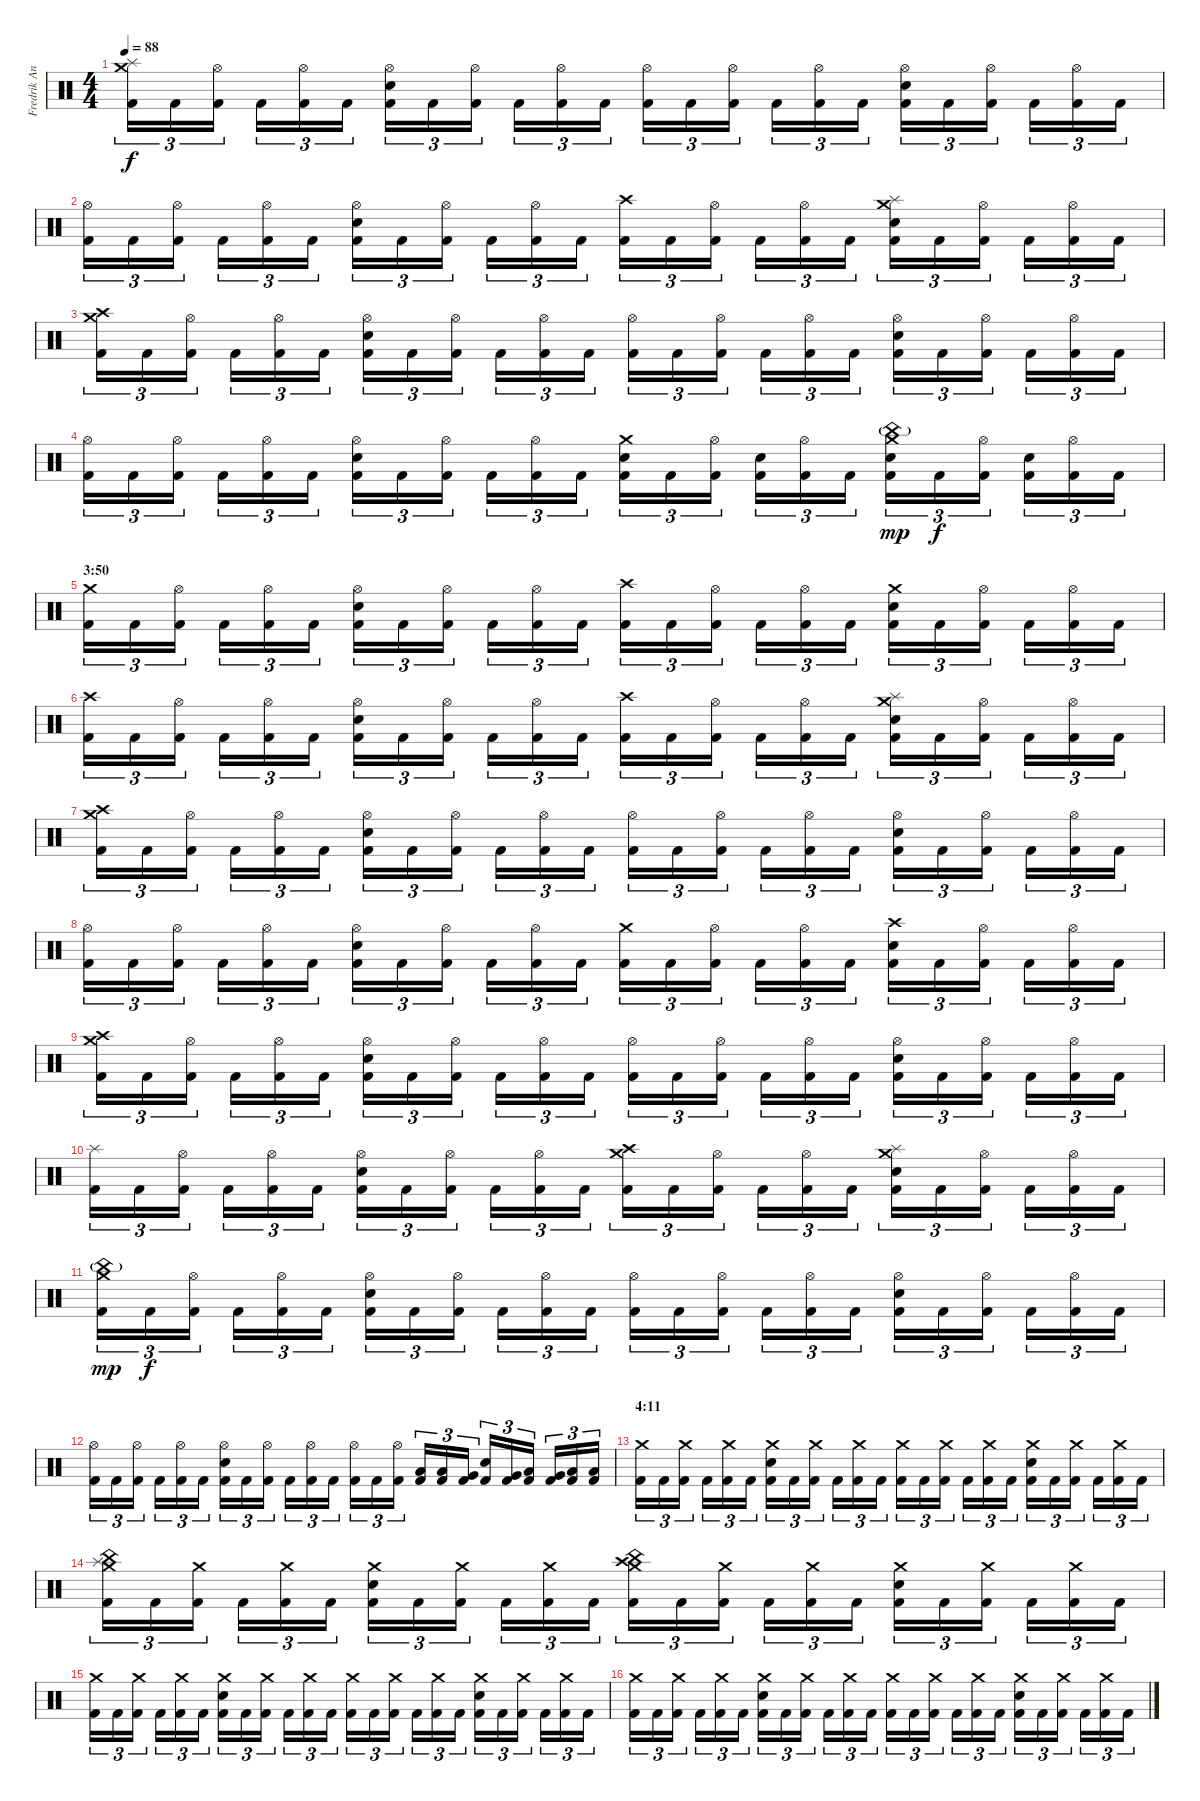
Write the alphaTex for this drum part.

\track ("Fredrik Andersson" "Fredrik An") {instrument percussion}
\staff {score}
\articulation defaults
\ts (4 4)
\tempo 88
\clef neutral
\ks c
("Crash medium (hit)" "Splash (hit)" "Kick (hit) 2").16{tu (3 2) dy f} "Kick (hit) 2".16{tu (3 2)} ("Hi-Hat (open)" "Kick (hit) 2").16{tu (3 2)} "Kick (hit) 2".16{tu (3 2)} ("Hi-Hat (open)" "Kick (hit) 2").16{tu (3 2)} "Kick (hit) 2".16{tu (3 2)} ("Hi-Hat (open)" "Electric Snare (hit)" "Kick (hit) 2").16{tu (3 2)} "Kick (hit) 2".16{tu (3 2)} ("Hi-Hat (open)" "Kick (hit) 2").16{tu (3 2)} "Kick (hit) 2".16{tu (3 2)} ("Hi-Hat (open)" "Kick (hit) 2").16{tu (3 2)} "Kick (hit) 2".16{tu (3 2)} ("Hi-Hat (open)" "Kick (hit) 2").16{tu (3 2)} "Kick (hit) 2".16{tu (3 2)} ("Hi-Hat (open)" "Kick (hit) 2").16{tu (3 2)} "Kick (hit) 2".16{tu (3 2)} ("Hi-Hat (open)" "Kick (hit) 2").16{tu (3 2)} "Kick (hit) 2".16{tu (3 2)} ("Hi-Hat (open)" "Electric Snare (hit)" "Kick (hit) 2").16{tu (3 2)} "Kick (hit) 2".16{tu (3 2)} ("Hi-Hat (open)" "Kick (hit) 2").16{tu (3 2)} "Kick (hit) 2".16{tu (3 2)} ("Hi-Hat (open)" "Kick (hit) 2").16{tu (3 2)} "Kick (hit) 2".16{tu (3 2)} |
("Hi-Hat (open)" "Kick (hit) 2").16{tu (3 2)} "Kick (hit) 2".16{tu (3 2)} ("Hi-Hat (open)" "Kick (hit) 2").16{tu (3 2)} "Kick (hit) 2".16{tu (3 2)} ("Hi-Hat (open)" "Kick (hit) 2").16{tu (3 2)} "Kick (hit) 2".16{tu (3 2)} ("Hi-Hat (open)" "Electric Snare (hit)" "Kick (hit) 2").16{tu (3 2)} "Kick (hit) 2".16{tu (3 2)} ("Hi-Hat (open)" "Kick (hit) 2").16{tu (3 2)} "Kick (hit) 2".16{tu (3 2)} ("Hi-Hat (open)" "Kick (hit) 2").16{tu (3 2)} "Kick (hit) 2".16{tu (3 2)} ("Crash high (hit)" "Kick (hit) 2").16{tu (3 2)} "Kick (hit) 2".16{tu (3 2)} ("Hi-Hat (open)" "Kick (hit) 2").16{tu (3 2)} "Kick (hit) 2".16{tu (3 2)} ("Hi-Hat (open)" "Kick (hit) 2").16{tu (3 2)} "Kick (hit) 2".16{tu (3 2)} ("Crash medium (hit)" "Splash (hit)" "Electric Snare (hit)" "Kick (hit) 2").16{tu (3 2)} "Kick (hit) 2".16{tu (3 2)} ("Hi-Hat (open)" "Kick (hit) 2").16{tu (3 2)} "Kick (hit) 2".16{tu (3 2)} ("Hi-Hat (open)" "Kick (hit) 2").16{tu (3 2)} "Kick (hit) 2".16{tu (3 2)} |
("Crash medium (hit)" "Crash high (hit)" "Kick (hit) 2").16{tu (3 2)} "Kick (hit) 2".16{tu (3 2)} ("Hi-Hat (open)" "Kick (hit) 2").16{tu (3 2)} "Kick (hit) 2".16{tu (3 2)} ("Hi-Hat (open)" "Kick (hit) 2").16{tu (3 2)} "Kick (hit) 2".16{tu (3 2)} ("Hi-Hat (open)" "Electric Snare (hit)" "Kick (hit) 2").16{tu (3 2)} "Kick (hit) 2".16{tu (3 2)} ("Hi-Hat (open)" "Kick (hit) 2").16{tu (3 2)} "Kick (hit) 2".16{tu (3 2)} ("Hi-Hat (open)" "Kick (hit) 2").16{tu (3 2)} "Kick (hit) 2".16{tu (3 2)} ("Hi-Hat (open)" "Kick (hit) 2").16{tu (3 2)} "Kick (hit) 2".16{tu (3 2)} ("Hi-Hat (open)" "Kick (hit) 2").16{tu (3 2)} "Kick (hit) 2".16{tu (3 2)} ("Hi-Hat (open)" "Kick (hit) 2").16{tu (3 2)} "Kick (hit) 2".16{tu (3 2)} ("Hi-Hat (open)" "Electric Snare (hit)" "Kick (hit) 2").16{tu (3 2)} "Kick (hit) 2".16{tu (3 2)} ("Hi-Hat (open)" "Kick (hit) 2").16{tu (3 2)} "Kick (hit) 2".16{tu (3 2)} ("Hi-Hat (open)" "Kick (hit) 2").16{tu (3 2)} "Kick (hit) 2".16{tu (3 2)} |
("Hi-Hat (open)" "Kick (hit) 2").16{tu (3 2)} "Kick (hit) 2".16{tu (3 2)} ("Hi-Hat (open)" "Kick (hit) 2").16{tu (3 2)} "Kick (hit) 2".16{tu (3 2)} ("Hi-Hat (open)" "Kick (hit) 2").16{tu (3 2)} "Kick (hit) 2".16{tu (3 2)} ("Hi-Hat (open)" "Electric Snare (hit)" "Kick (hit) 2").16{tu (3 2)} "Kick (hit) 2".16{tu (3 2)} ("Hi-Hat (open)" "Kick (hit) 2").16{tu (3 2)} "Kick (hit) 2".16{tu (3 2)} ("Hi-Hat (open)" "Kick (hit) 2").16{tu (3 2)} "Kick (hit) 2".16{tu (3 2)} ("Crash medium (hit)" "Electric Snare (hit)" "Kick (hit) 2").16{tu (3 2)} "Kick (hit) 2".16{tu (3 2)} ("Hi-Hat (open)" "Kick (hit) 2").16{tu (3 2)} ("Electric Snare (hit)" "Kick (hit) 2").16{tu (3 2)} ("Hi-Hat (open)" "Kick (hit) 2").16{tu (3 2)} "Kick (hit) 2".16{tu (3 2)} ("China (hit)"{g} "Crash medium (hit)" "Electric Snare (hit)" "Kick (hit) 2").16{tu (3 2) dy mp} "Kick (hit) 2".16{tu (3 2) dy f} ("Hi-Hat (open)" "Kick (hit) 2").16{tu (3 2)} ("Electric Snare (hit)" "Kick (hit) 2").16{tu (3 2)} ("Hi-Hat (open)" "Kick (hit) 2").16{tu (3 2)} "Kick (hit) 2".16{tu (3 2)} |
\section ("" "3:50")
("Crash medium (hit)" "Kick (hit) 2").16{tu (3 2)} "Kick (hit) 2".16{tu (3 2)} ("Hi-Hat (open)" "Kick (hit) 2").16{tu (3 2)} "Kick (hit) 2".16{tu (3 2)} ("Hi-Hat (open)" "Kick (hit) 2").16{tu (3 2)} "Kick (hit) 2".16{tu (3 2)} ("Hi-Hat (open)" "Electric Snare (hit)" "Kick (hit) 2").16{tu (3 2)} "Kick (hit) 2".16{tu (3 2)} ("Hi-Hat (open)" "Kick (hit) 2").16{tu (3 2)} "Kick (hit) 2".16{tu (3 2)} ("Hi-Hat (open)" "Kick (hit) 2").16{tu (3 2)} "Kick (hit) 2".16{tu (3 2)} ("Crash high (hit)" "Kick (hit) 2").16{tu (3 2)} "Kick (hit) 2".16{tu (3 2)} ("Hi-Hat (open)" "Kick (hit) 2").16{tu (3 2)} "Kick (hit) 2".16{tu (3 2)} ("Hi-Hat (open)" "Kick (hit) 2").16{tu (3 2)} "Kick (hit) 2".16{tu (3 2)} ("Crash medium (hit)" "Electric Snare (hit)" "Kick (hit) 2").16{tu (3 2)} "Kick (hit) 2".16{tu (3 2)} ("Hi-Hat (open)" "Kick (hit) 2").16{tu (3 2)} "Kick (hit) 2".16{tu (3 2)} ("Hi-Hat (open)" "Kick (hit) 2").16{tu (3 2)} "Kick (hit) 2".16{tu (3 2)} |
("Crash high (hit)" "Kick (hit) 2").16{tu (3 2)} "Kick (hit) 2".16{tu (3 2)} ("Hi-Hat (open)" "Kick (hit) 2").16{tu (3 2)} "Kick (hit) 2".16{tu (3 2)} ("Hi-Hat (open)" "Kick (hit) 2").16{tu (3 2)} "Kick (hit) 2".16{tu (3 2)} ("Hi-Hat (open)" "Electric Snare (hit)" "Kick (hit) 2").16{tu (3 2)} "Kick (hit) 2".16{tu (3 2)} ("Hi-Hat (open)" "Kick (hit) 2").16{tu (3 2)} "Kick (hit) 2".16{tu (3 2)} ("Hi-Hat (open)" "Kick (hit) 2").16{tu (3 2)} "Kick (hit) 2".16{tu (3 2)} ("Crash high (hit)" "Kick (hit) 2").16{tu (3 2)} "Kick (hit) 2".16{tu (3 2)} ("Hi-Hat (open)" "Kick (hit) 2").16{tu (3 2)} "Kick (hit) 2".16{tu (3 2)} ("Hi-Hat (open)" "Kick (hit) 2").16{tu (3 2)} "Kick (hit) 2".16{tu (3 2)} ("Crash medium (hit)" "Splash (hit)" "Electric Snare (hit)" "Kick (hit) 2").16{tu (3 2)} "Kick (hit) 2".16{tu (3 2)} ("Hi-Hat (open)" "Kick (hit) 2").16{tu (3 2)} "Kick (hit) 2".16{tu (3 2)} ("Hi-Hat (open)" "Kick (hit) 2").16{tu (3 2)} "Kick (hit) 2".16{tu (3 2)} |
("Crash medium (hit)" "Crash high (hit)" "Kick (hit) 2").16{tu (3 2)} "Kick (hit) 2".16{tu (3 2)} ("Hi-Hat (open)" "Kick (hit) 2").16{tu (3 2)} "Kick (hit) 2".16{tu (3 2)} ("Hi-Hat (open)" "Kick (hit) 2").16{tu (3 2)} "Kick (hit) 2".16{tu (3 2)} ("Hi-Hat (open)" "Electric Snare (hit)" "Kick (hit) 2").16{tu (3 2)} "Kick (hit) 2".16{tu (3 2)} ("Hi-Hat (open)" "Kick (hit) 2").16{tu (3 2)} "Kick (hit) 2".16{tu (3 2)} ("Hi-Hat (open)" "Kick (hit) 2").16{tu (3 2)} "Kick (hit) 2".16{tu (3 2)} ("Hi-Hat (open)" "Kick (hit) 2").16{tu (3 2)} "Kick (hit) 2".16{tu (3 2)} ("Hi-Hat (open)" "Kick (hit) 2").16{tu (3 2)} "Kick (hit) 2".16{tu (3 2)} ("Hi-Hat (open)" "Kick (hit) 2").16{tu (3 2)} "Kick (hit) 2".16{tu (3 2)} ("Hi-Hat (open)" "Electric Snare (hit)" "Kick (hit) 2").16{tu (3 2)} "Kick (hit) 2".16{tu (3 2)} ("Hi-Hat (open)" "Kick (hit) 2").16{tu (3 2)} "Kick (hit) 2".16{tu (3 2)} ("Hi-Hat (open)" "Kick (hit) 2").16{tu (3 2)} "Kick (hit) 2".16{tu (3 2)} |
("Hi-Hat (open)" "Kick (hit) 2").16{tu (3 2)} "Kick (hit) 2".16{tu (3 2)} ("Hi-Hat (open)" "Kick (hit) 2").16{tu (3 2)} "Kick (hit) 2".16{tu (3 2)} ("Hi-Hat (open)" "Kick (hit) 2").16{tu (3 2)} "Kick (hit) 2".16{tu (3 2)} ("Hi-Hat (open)" "Electric Snare (hit)" "Kick (hit) 2").16{tu (3 2)} "Kick (hit) 2".16{tu (3 2)} ("Hi-Hat (open)" "Kick (hit) 2").16{tu (3 2)} "Kick (hit) 2".16{tu (3 2)} ("Hi-Hat (open)" "Kick (hit) 2").16{tu (3 2)} "Kick (hit) 2".16{tu (3 2)} ("Crash medium (hit)" "Kick (hit) 2").16{tu (3 2)} "Kick (hit) 2".16{tu (3 2)} ("Hi-Hat (open)" "Kick (hit) 2").16{tu (3 2)} "Kick (hit) 2".16{tu (3 2)} ("Hi-Hat (open)" "Kick (hit) 2").16{tu (3 2)} "Kick (hit) 2".16{tu (3 2)} ("Crash high (hit)" "Electric Snare (hit)" "Kick (hit) 2").16{tu (3 2)} "Kick (hit) 2".16{tu (3 2)} ("Hi-Hat (open)" "Kick (hit) 2").16{tu (3 2)} "Kick (hit) 2".16{tu (3 2)} ("Hi-Hat (open)" "Kick (hit) 2").16{tu (3 2)} "Kick (hit) 2".16{tu (3 2)} |
("Crash medium (hit)" "Crash high (hit)" "Kick (hit) 2").16{tu (3 2)} "Kick (hit) 2".16{tu (3 2)} ("Hi-Hat (open)" "Kick (hit) 2").16{tu (3 2)} "Kick (hit) 2".16{tu (3 2)} ("Hi-Hat (open)" "Kick (hit) 2").16{tu (3 2)} "Kick (hit) 2".16{tu (3 2)} ("Hi-Hat (open)" "Electric Snare (hit)" "Kick (hit) 2").16{tu (3 2)} "Kick (hit) 2".16{tu (3 2)} ("Hi-Hat (open)" "Kick (hit) 2").16{tu (3 2)} "Kick (hit) 2".16{tu (3 2)} ("Hi-Hat (open)" "Kick (hit) 2").16{tu (3 2)} "Kick (hit) 2".16{tu (3 2)} ("Hi-Hat (open)" "Kick (hit) 2").16{tu (3 2)} "Kick (hit) 2".16{tu (3 2)} ("Hi-Hat (open)" "Kick (hit) 2").16{tu (3 2)} "Kick (hit) 2".16{tu (3 2)} ("Hi-Hat (open)" "Kick (hit) 2").16{tu (3 2)} "Kick (hit) 2".16{tu (3 2)} ("Hi-Hat (open)" "Electric Snare (hit)" "Kick (hit) 2").16{tu (3 2)} "Kick (hit) 2".16{tu (3 2)} ("Hi-Hat (open)" "Kick (hit) 2").16{tu (3 2)} "Kick (hit) 2".16{tu (3 2)} ("Hi-Hat (open)" "Kick (hit) 2").16{tu (3 2)} "Kick (hit) 2".16{tu (3 2)} |
("Splash (hit)" "Kick (hit) 2").16{tu (3 2)} "Kick (hit) 2".16{tu (3 2)} ("Hi-Hat (open)" "Kick (hit) 2").16{tu (3 2)} "Kick (hit) 2".16{tu (3 2)} ("Hi-Hat (open)" "Kick (hit) 2").16{tu (3 2)} "Kick (hit) 2".16{tu (3 2)} ("Hi-Hat (open)" "Electric Snare (hit)" "Kick (hit) 2").16{tu (3 2)} "Kick (hit) 2".16{tu (3 2)} ("Hi-Hat (open)" "Kick (hit) 2").16{tu (3 2)} "Kick (hit) 2".16{tu (3 2)} ("Hi-Hat (open)" "Kick (hit) 2").16{tu (3 2)} "Kick (hit) 2".16{tu (3 2)} ("Crash medium (hit)" "Crash high (hit)" "Kick (hit) 2").16{tu (3 2)} "Kick (hit) 2".16{tu (3 2)} ("Hi-Hat (open)" "Kick (hit) 2").16{tu (3 2)} "Kick (hit) 2".16{tu (3 2)} ("Hi-Hat (open)" "Kick (hit) 2").16{tu (3 2)} "Kick (hit) 2".16{tu (3 2)} ("Crash medium (hit)" "Splash (hit)" "Electric Snare (hit)" "Kick (hit) 2").16{tu (3 2)} "Kick (hit) 2".16{tu (3 2)} ("Hi-Hat (open)" "Kick (hit) 2").16{tu (3 2)} "Kick (hit) 2".16{tu (3 2)} ("Hi-Hat (open)" "Kick (hit) 2").16{tu (3 2)} "Kick (hit) 2".16{tu (3 2)} |
("Crash medium (hit)" "China (hit)"{g} "Kick (hit) 2").16{tu (3 2) dy mp} "Kick (hit) 2".16{tu (3 2) dy f} ("Hi-Hat (open)" "Kick (hit) 2").16{tu (3 2)} "Kick (hit) 2".16{tu (3 2)} ("Hi-Hat (open)" "Kick (hit) 2").16{tu (3 2)} "Kick (hit) 2".16{tu (3 2)} ("Hi-Hat (open)" "Electric Snare (hit)" "Kick (hit) 2").16{tu (3 2)} "Kick (hit) 2".16{tu (3 2)} ("Hi-Hat (open)" "Kick (hit) 2").16{tu (3 2)} "Kick (hit) 2".16{tu (3 2)} ("Hi-Hat (open)" "Kick (hit) 2").16{tu (3 2)} "Kick (hit) 2".16{tu (3 2)} ("Hi-Hat (open)" "Kick (hit) 2").16{tu (3 2)} "Kick (hit) 2".16{tu (3 2)} ("Hi-Hat (open)" "Kick (hit) 2").16{tu (3 2)} "Kick (hit) 2".16{tu (3 2)} ("Hi-Hat (open)" "Kick (hit) 2").16{tu (3 2)} "Kick (hit) 2".16{tu (3 2)} ("Hi-Hat (open)" "Electric Snare (hit)" "Kick (hit) 2").16{tu (3 2)} "Kick (hit) 2".16{tu (3 2)} ("Hi-Hat (open)" "Kick (hit) 2").16{tu (3 2)} "Kick (hit) 2".16{tu (3 2)} ("Hi-Hat (open)" "Kick (hit) 2").16{tu (3 2)} "Kick (hit) 2".16{tu (3 2)} |
("Hi-Hat (open)" "Kick (hit) 2").16{tu (3 2)} "Kick (hit) 2".16{tu (3 2)} ("Hi-Hat (open)" "Kick (hit) 2").16{tu (3 2)} "Kick (hit) 2".16{tu (3 2)} ("Hi-Hat (open)" "Kick (hit) 2").16{tu (3 2)} "Kick (hit) 2".16{tu (3 2)} ("Hi-Hat (open)" "Electric Snare (hit)" "Kick (hit) 2").16{tu (3 2)} "Kick (hit) 2".16{tu (3 2)} ("Hi-Hat (open)" "Kick (hit) 2").16{tu (3 2)} "Kick (hit) 2".16{tu (3 2)} ("Hi-Hat (open)" "Kick (hit) 2").16{tu (3 2)} "Kick (hit) 2".16{tu (3 2)} ("Hi-Hat (open)" "Kick (hit) 2").16{tu (3 2)} "Kick (hit) 2".16{tu (3 2)} ("Hi-Hat (open)" "Kick (hit) 2").16{tu (3 2)} ("Low Tom (hit)" "Kick (hit) 2").16{tu (3 2)} ("Low Tom (hit)" "Kick (hit) 2").16{tu (3 2)} ("Very Low Tom (hit)" "Kick (hit) 2").16{tu (3 2)} ("Electric Snare (hit)" "Kick (hit) 2").16{tu (3 2)} ("Very Low Tom (hit)" "Kick (hit) 2").16{tu (3 2)} ("Low Tom (hit)" "Kick (hit) 2").16{tu (3 2)} ("Very Low Tom (hit)" "Kick (hit) 2").16{tu (3 2)} ("Low Floor Tom (hit)" "Kick (hit) 2").16{tu (3 2)} ("Low Floor Tom (hit)" "Kick (hit) 2").16{tu (3 2)} |
\section ("" "4:11")
("Crash medium (hit)" "Kick (hit) 2").16{tu (3 2)} "Kick (hit) 2".16{tu (3 2)} ("Crash medium (hit)" "Kick (hit) 2").16{tu (3 2)} "Kick (hit) 2".16{tu (3 2)} ("Crash medium (hit)" "Kick (hit) 2").16{tu (3 2)} "Kick (hit) 2".16{tu (3 2)} ("Crash medium (hit)" "Electric Snare (hit)" "Kick (hit) 2").16{tu (3 2)} "Kick (hit) 2".16{tu (3 2)} ("Crash medium (hit)" "Kick (hit) 2").16{tu (3 2)} "Kick (hit) 2".16{tu (3 2)} ("Crash medium (hit)" "Kick (hit) 2").16{tu (3 2)} "Kick (hit) 2".16{tu (3 2)} ("Crash medium (hit)" "Kick (hit) 2").16{tu (3 2)} "Kick (hit) 2".16{tu (3 2)} ("Crash medium (hit)" "Kick (hit) 2").16{tu (3 2)} "Kick (hit) 2".16{tu (3 2)} ("Crash medium (hit)" "Kick (hit) 2").16{tu (3 2)} "Kick (hit) 2".16{tu (3 2)} ("Crash medium (hit)" "Electric Snare (hit)" "Kick (hit) 2").16{tu (3 2)} "Kick (hit) 2".16{tu (3 2)} ("Crash medium (hit)" "Kick (hit) 2").16{tu (3 2)} "Kick (hit) 2".16{tu (3 2)} ("Crash medium (hit)" "Kick (hit) 2").16{tu (3 2)} "Kick (hit) 2".16{tu (3 2)} |
("Crash medium (hit)" "Splash (hit)" "China (hit)" "Kick (hit) 2").16{tu (3 2)} "Kick (hit) 2".16{tu (3 2)} ("Crash medium (hit)" "Kick (hit) 2").16{tu (3 2)} "Kick (hit) 2".16{tu (3 2)} ("Crash medium (hit)" "Kick (hit) 2").16{tu (3 2)} "Kick (hit) 2".16{tu (3 2)} ("Crash medium (hit)" "Electric Snare (hit)" "Kick (hit) 2").16{tu (3 2)} "Kick (hit) 2".16{tu (3 2)} ("Crash medium (hit)" "Kick (hit) 2").16{tu (3 2)} "Kick (hit) 2".16{tu (3 2)} ("Crash medium (hit)" "Kick (hit) 2").16{tu (3 2)} "Kick (hit) 2".16{tu (3 2)} ("Crash medium (hit)" "Crash high (hit)" "China (hit)" "Kick (hit) 2").16{tu (3 2)} "Kick (hit) 2".16{tu (3 2)} ("Crash medium (hit)" "Kick (hit) 2").16{tu (3 2)} "Kick (hit) 2".16{tu (3 2)} ("Crash medium (hit)" "Kick (hit) 2").16{tu (3 2)} "Kick (hit) 2".16{tu (3 2)} ("Crash medium (hit)" "Electric Snare (hit)" "Kick (hit) 2").16{tu (3 2)} "Kick (hit) 2".16{tu (3 2)} ("Crash medium (hit)" "Kick (hit) 2").16{tu (3 2)} "Kick (hit) 2".16{tu (3 2)} ("Crash medium (hit)" "Kick (hit) 2").16{tu (3 2)} "Kick (hit) 2".16{tu (3 2)} |
("Crash medium (hit)" "Kick (hit) 2").16{tu (3 2)} "Kick (hit) 2".16{tu (3 2)} ("Crash medium (hit)" "Kick (hit) 2").16{tu (3 2)} "Kick (hit) 2".16{tu (3 2)} ("Crash medium (hit)" "Kick (hit) 2").16{tu (3 2)} "Kick (hit) 2".16{tu (3 2)} ("Crash medium (hit)" "Electric Snare (hit)" "Kick (hit) 2").16{tu (3 2)} "Kick (hit) 2".16{tu (3 2)} ("Crash medium (hit)" "Kick (hit) 2").16{tu (3 2)} "Kick (hit) 2".16{tu (3 2)} ("Crash medium (hit)" "Kick (hit) 2").16{tu (3 2)} "Kick (hit) 2".16{tu (3 2)} ("Crash medium (hit)" "Kick (hit) 2").16{tu (3 2)} "Kick (hit) 2".16{tu (3 2)} ("Crash medium (hit)" "Kick (hit) 2").16{tu (3 2)} "Kick (hit) 2".16{tu (3 2)} ("Crash medium (hit)" "Kick (hit) 2").16{tu (3 2)} "Kick (hit) 2".16{tu (3 2)} ("Crash medium (hit)" "Electric Snare (hit)" "Kick (hit) 2").16{tu (3 2)} "Kick (hit) 2".16{tu (3 2)} ("Crash medium (hit)" "Kick (hit) 2").16{tu (3 2)} "Kick (hit) 2".16{tu (3 2)} ("Crash medium (hit)" "Kick (hit) 2").16{tu (3 2)} "Kick (hit) 2".16{tu (3 2)} |
("Crash medium (hit)" "Kick (hit) 2").16{tu (3 2)} "Kick (hit) 2".16{tu (3 2)} ("Crash medium (hit)" "Kick (hit) 2").16{tu (3 2)} "Kick (hit) 2".16{tu (3 2)} ("Crash medium (hit)" "Kick (hit) 2").16{tu (3 2)} "Kick (hit) 2".16{tu (3 2)} ("Crash medium (hit)" "Electric Snare (hit)" "Kick (hit) 2").16{tu (3 2)} "Kick (hit) 2".16{tu (3 2)} ("Crash medium (hit)" "Kick (hit) 2").16{tu (3 2)} "Kick (hit) 2".16{tu (3 2)} ("Crash medium (hit)" "Kick (hit) 2").16{tu (3 2)} "Kick (hit) 2".16{tu (3 2)} ("Crash medium (hit)" "Kick (hit) 2").16{tu (3 2)} "Kick (hit) 2".16{tu (3 2)} ("Crash medium (hit)" "Kick (hit) 2").16{tu (3 2)} "Kick (hit) 2".16{tu (3 2)} ("Crash medium (hit)" "Kick (hit) 2").16{tu (3 2)} "Kick (hit) 2".16{tu (3 2)} ("Crash medium (hit)" "Electric Snare (hit)" "Kick (hit) 2").16{tu (3 2)} "Kick (hit) 2".16{tu (3 2)} ("Crash medium (hit)" "Kick (hit) 2").16{tu (3 2)} "Kick (hit) 2".16{tu (3 2)} ("Crash medium (hit)" "Kick (hit) 2").16{tu (3 2)} "Kick (hit) 2".16{tu (3 2)}
